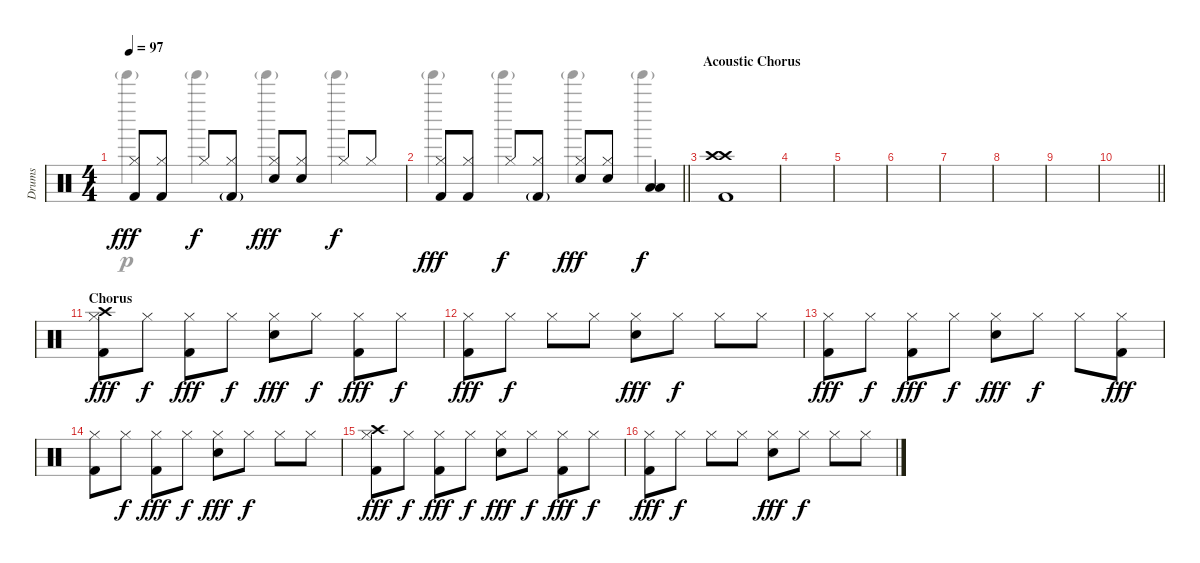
\track ("Drums" "Drums") {instrument percussion}
\staff {score}
\articulation defaults
\voice
\ts (4 4)
\tempo 97
\clef neutral
\ks c
("Hi-Hat (closed)" "Kick (hit) 2").8{dy fff} ("Hi-Hat (closed)" "Kick (hit) 2").8 "Hi-Hat (closed)".8{dy f} ("Hi-Hat (closed)" "Kick (hit) 2"{g}).8 ("Hi-Hat (closed)" "Electric Snare (hit)").8{dy fff} ("Hi-Hat (closed)" "Electric Snare (hit)").8 "Hi-Hat (closed)".8{dy f} "Hi-Hat (closed)".8 |
\barLineRight lightlight
("Hi-Hat (closed)" "Kick (hit) 2").8{dy fff} ("Hi-Hat (closed)" "Kick (hit) 2").8 "Hi-Hat (closed)".8{dy f} ("Hi-Hat (closed)" "Kick (hit) 2"{g}).8 ("Hi-Hat (closed)" "Electric Snare (hit)").8{dy fff} ("Hi-Hat (closed)" "Electric Snare (hit)").8 ("Low Floor Tom (hit)" "Low Tom (hit)").4{dy f} |
\section ("" "Acoustic Chorus")
("Crash high (hit)" "Crash high (hit)" "Kick (hit) 2").1 |
|
|
|
|
|
|
\barLineRight lightlight
|
\section ("" "Chorus")
("Crash high (hit)" "Hi-Hat (closed)" "Kick (hit) 2").8{dy fff} "Hi-Hat (closed)".8{dy f} ("Hi-Hat (closed)" "Kick (hit) 2").8{dy fff} "Hi-Hat (closed)".8{dy f} ("Hi-Hat (closed)" "Electric Snare (hit)").8{dy fff} "Hi-Hat (closed)".8{dy f} ("Hi-Hat (closed)" "Kick (hit) 2").8{dy fff} "Hi-Hat (closed)".8{dy f} |
("Hi-Hat (closed)" "Kick (hit) 2").8{dy fff} "Hi-Hat (closed)".8{dy f} "Hi-Hat (closed)".8 "Hi-Hat (closed)".8 ("Hi-Hat (closed)" "Electric Snare (hit)").8{dy fff} "Hi-Hat (closed)".8{dy f} "Hi-Hat (closed)".8 "Hi-Hat (closed)".8 |
("Hi-Hat (closed)" "Kick (hit) 2").8{dy fff} "Hi-Hat (closed)".8{dy f} ("Hi-Hat (closed)" "Kick (hit) 2").8{dy fff} "Hi-Hat (closed)".8{dy f} ("Hi-Hat (closed)" "Electric Snare (hit)").8{dy fff} "Hi-Hat (closed)".8{dy f} "Hi-Hat (closed)".8 ("Hi-Hat (closed)" "Kick (hit) 2").8{dy fff} |
("Hi-Hat (closed)" "Kick (hit) 2").8 "Hi-Hat (closed)".8{dy f} ("Hi-Hat (closed)" "Kick (hit) 2").8{dy fff} "Hi-Hat (closed)".8{dy f} ("Hi-Hat (closed)" "Electric Snare (hit)").8{dy fff} "Hi-Hat (closed)".8{dy f} "Hi-Hat (closed)".8 "Hi-Hat (closed)".8 |
("Crash high (hit)" "Hi-Hat (closed)" "Kick (hit) 2").8{dy fff} "Hi-Hat (closed)".8{dy f} ("Hi-Hat (closed)" "Kick (hit) 2").8{dy fff} "Hi-Hat (closed)".8{dy f} ("Hi-Hat (closed)" "Electric Snare (hit)").8{dy fff} "Hi-Hat (closed)".8{dy f} ("Hi-Hat (closed)" "Kick (hit) 2").8{dy fff} "Hi-Hat (closed)".8{dy f} |
("Hi-Hat (closed)" "Kick (hit) 2").8{dy fff} "Hi-Hat (closed)".8{dy f} "Hi-Hat (closed)".8 "Hi-Hat (closed)".8 ("Hi-Hat (closed)" "Electric Snare (hit)").8{dy fff} "Hi-Hat (closed)".8{dy f} "Hi-Hat (closed)".8 "Hi-Hat (closed)".8
\voice
\clef neutral
\ottava regular
\simile none
\ks c "Tinkle Bell (hit)"{g}.4{dy p} "Tinkle Bell (hit)"{g}.4 "Tinkle Bell (hit)"{g}.4 "Tinkle Bell (hit)"{g}.4
|
\barLineRight lightlight "Tinkle Bell (hit)"{g}.4 "Tinkle Bell (hit)"{g}.4 "Tinkle Bell (hit)"{g}.4 "Tinkle Bell (hit)"{g}.4
|
|
|
|
|
|
|
|
\barLineRight lightlight
|
|
|
|
|
|
